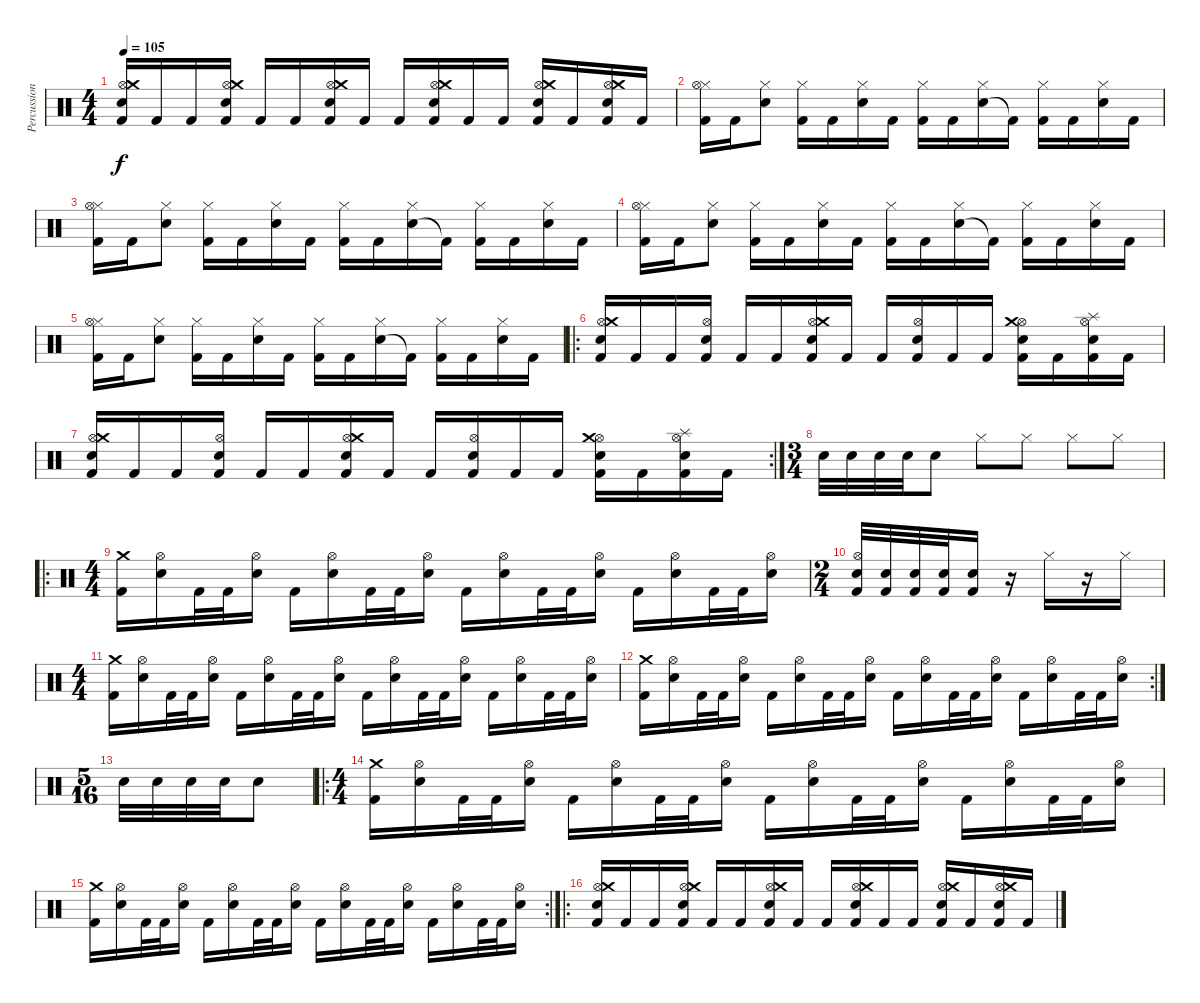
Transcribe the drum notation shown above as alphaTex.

\track ("Percussion" "Percussion") {instrument percussion}
\staff {score}
\articulation defaults
\ts (4 4)
\tempo 105
\clef neutral
\ks c
("Electric Snare (hit)" "Hi-Hat (open)" "Crash medium (hit)" "Kick (hit) 2").16{dy f} "Kick (hit) 2".16 "Kick (hit) 2".16 ("Electric Snare (hit)" "Hi-Hat (open)" "Crash medium (hit)" "Kick (hit) 2").16 "Kick (hit) 2".16 "Kick (hit) 2".16 ("Electric Snare (hit)" "Hi-Hat (open)" "Crash medium (hit)" "Kick (hit) 2").16 "Kick (hit) 2".16 "Kick (hit) 2".16 ("Electric Snare (hit)" "Hi-Hat (open)" "Crash medium (hit)" "Kick (hit) 2").16 "Kick (hit) 2".16 "Kick (hit) 2".16 ("Electric Snare (hit)" "Hi-Hat (open)" "Crash medium (hit)" "Kick (hit) 2").16 "Kick (hit) 2".16 ("Electric Snare (hit)" "Hi-Hat (open)" "Crash medium (hit)" "Kick (hit) 2").16 "Kick (hit) 2".16 |
("Kick (hit) 2" "Hi-Hat (closed)" "Hi-Hat (open)").16 "Kick (hit) 2".16 ("Electric Snare (hit)" "Hi-Hat (closed)").8 ("Kick (hit) 2" "Hi-Hat (closed)").16 "Kick (hit) 2".16 ("Electric Snare (hit)" "Hi-Hat (closed)").16 "Kick (hit) 2".16 ("Kick (hit) 2" "Hi-Hat (closed)").16 "Kick (hit) 2".16 ("Electric Snare (hit)" "Hi-Hat (closed)").16 "Kick (hit) 2"{t}.16 ("Kick (hit) 2" "Hi-Hat (closed)").16 "Kick (hit) 2".16 ("Electric Snare (hit)" "Hi-Hat (closed)").16 "Kick (hit) 2".16 |
("Kick (hit) 2" "Hi-Hat (closed)" "Hi-Hat (open)").16 "Kick (hit) 2".16 ("Electric Snare (hit)" "Hi-Hat (closed)").8 ("Kick (hit) 2" "Hi-Hat (closed)").16 "Kick (hit) 2".16 ("Electric Snare (hit)" "Hi-Hat (closed)").16 "Kick (hit) 2".16 ("Kick (hit) 2" "Hi-Hat (closed)").16 "Kick (hit) 2".16 ("Electric Snare (hit)" "Hi-Hat (closed)").16 "Kick (hit) 2"{t}.16 ("Kick (hit) 2" "Hi-Hat (closed)").16 "Kick (hit) 2".16 ("Electric Snare (hit)" "Hi-Hat (closed)").16 "Kick (hit) 2".16 |
("Kick (hit) 2" "Hi-Hat (closed)" "Hi-Hat (open)").16 "Kick (hit) 2".16 ("Electric Snare (hit)" "Hi-Hat (closed)").8 ("Kick (hit) 2" "Hi-Hat (closed)").16 "Kick (hit) 2".16 ("Electric Snare (hit)" "Hi-Hat (closed)").16 "Kick (hit) 2".16 ("Kick (hit) 2" "Hi-Hat (closed)").16 "Kick (hit) 2".16 ("Electric Snare (hit)" "Hi-Hat (closed)").16 "Kick (hit) 2"{t}.16 ("Kick (hit) 2" "Hi-Hat (closed)").16 "Kick (hit) 2".16 ("Electric Snare (hit)" "Hi-Hat (closed)").16 "Kick (hit) 2".16 |
("Kick (hit) 2" "Hi-Hat (closed)" "Hi-Hat (open)").16 "Kick (hit) 2".16 ("Electric Snare (hit)" "Hi-Hat (closed)").8 ("Kick (hit) 2" "Hi-Hat (closed)").16 "Kick (hit) 2".16 ("Electric Snare (hit)" "Hi-Hat (closed)").16 "Kick (hit) 2".16 ("Kick (hit) 2" "Hi-Hat (closed)").16 "Kick (hit) 2".16 ("Electric Snare (hit)" "Hi-Hat (closed)").16 "Kick (hit) 2"{t}.16 ("Kick (hit) 2" "Hi-Hat (closed)").16 "Kick (hit) 2".16 ("Electric Snare (hit)" "Hi-Hat (closed)").16 "Kick (hit) 2".16 |
\ro
("Electric Snare (hit)" "Hi-Hat (open)" "Crash medium (hit)" "Kick (hit) 2").16 "Kick (hit) 2".16 "Kick (hit) 2".16 ("Electric Snare (hit)" "Hi-Hat (open)" "Kick (hit) 2").16 "Kick (hit) 2".16 "Kick (hit) 2".16 ("Electric Snare (hit)" "Hi-Hat (open)" "Crash medium (hit)" "Kick (hit) 2").16 "Kick (hit) 2".16 "Kick (hit) 2".16 ("Electric Snare (hit)" "Hi-Hat (open)" "Kick (hit) 2").16 "Kick (hit) 2".16 "Kick (hit) 2".16 ("Electric Snare (hit)" "Hi-Hat (open)" "Crash medium (hit)" "Kick (hit) 2").16 "Kick (hit) 2".16 ("Electric Snare (hit)" "Hi-Hat (open)" "Splash (hit)" "Kick (hit) 2").16 "Kick (hit) 2".16 |
\rc 2
("Electric Snare (hit)" "Hi-Hat (open)" "Crash medium (hit)" "Kick (hit) 2").16 "Kick (hit) 2".16 "Kick (hit) 2".16 ("Electric Snare (hit)" "Hi-Hat (open)" "Kick (hit) 2").16 "Kick (hit) 2".16 "Kick (hit) 2".16 ("Electric Snare (hit)" "Hi-Hat (open)" "Crash medium (hit)" "Kick (hit) 2").16 "Kick (hit) 2".16 "Kick (hit) 2".16 ("Electric Snare (hit)" "Hi-Hat (open)" "Kick (hit) 2").16 "Kick (hit) 2".16 "Kick (hit) 2".16 ("Electric Snare (hit)" "Hi-Hat (open)" "Crash medium (hit)" "Kick (hit) 2").16 "Kick (hit) 2".16 ("Electric Snare (hit)" "Hi-Hat (open)" "Splash (hit)" "Kick (hit) 2").16 "Kick (hit) 2".16 |
\ts (3 4)
"Electric Snare (hit)".32 "Electric Snare (hit)".32 "Electric Snare (hit)".32 "Electric Snare (hit)".32 "Electric Snare (hit)".8 "Hi-Hat (closed)".8 "Hi-Hat (closed)".8 "Hi-Hat (closed)".8 "Hi-Hat (closed)".8 |
\ro
\ts (4 4)
("Kick (hit) 2" "Crash medium (hit)").16 ("Electric Snare (hit)" "Hi-Hat (open)").16 "Kick (hit) 2".32 "Kick (hit) 2".32 ("Electric Snare (hit)" "Hi-Hat (open)").16 "Kick (hit) 2".16 ("Electric Snare (hit)" "Hi-Hat (open)").16 "Kick (hit) 2".32 "Kick (hit) 2".32 ("Electric Snare (hit)" "Hi-Hat (open)").16 "Kick (hit) 2".16 ("Electric Snare (hit)" "Hi-Hat (open)").16 "Kick (hit) 2".32 "Kick (hit) 2".32 ("Electric Snare (hit)" "Hi-Hat (open)").16 "Kick (hit) 2".16 ("Electric Snare (hit)" "Hi-Hat (open)").16 "Kick (hit) 2".32 "Kick (hit) 2".32 ("Electric Snare (hit)" "Hi-Hat (open)").16 |
\ts (2 4)
("Kick (hit) 2" "Electric Snare (hit)" "Hi-Hat (open)").32 ("Kick (hit) 2" "Electric Snare (hit)").32 ("Kick (hit) 2" "Electric Snare (hit)").32 ("Kick (hit) 2" "Electric Snare (hit)").32 ("Kick (hit) 2" "Electric Snare (hit)").16 r.16 "Hi-Hat (closed)".16 r.16 "Hi-Hat (closed)".16 |
\ts (4 4)
("Kick (hit) 2" "Crash medium (hit)").16 ("Electric Snare (hit)" "Hi-Hat (open)").16 "Kick (hit) 2".32 "Kick (hit) 2".32 ("Electric Snare (hit)" "Hi-Hat (open)").16 "Kick (hit) 2".16 ("Electric Snare (hit)" "Hi-Hat (open)").16 "Kick (hit) 2".32 "Kick (hit) 2".32 ("Electric Snare (hit)" "Hi-Hat (open)").16 "Kick (hit) 2".16 ("Electric Snare (hit)" "Hi-Hat (open)").16 "Kick (hit) 2".32 "Kick (hit) 2".32 ("Electric Snare (hit)" "Hi-Hat (open)").16 "Kick (hit) 2".16 ("Electric Snare (hit)" "Hi-Hat (open)").16 "Kick (hit) 2".32 "Kick (hit) 2".32 ("Electric Snare (hit)" "Hi-Hat (open)").16 |
\rc 2
("Kick (hit) 2" "Crash medium (hit)").16 ("Electric Snare (hit)" "Hi-Hat (open)").16 "Kick (hit) 2".32 "Kick (hit) 2".32 ("Electric Snare (hit)" "Hi-Hat (open)").16 "Kick (hit) 2".16 ("Electric Snare (hit)" "Hi-Hat (open)").16 "Kick (hit) 2".32 "Kick (hit) 2".32 ("Electric Snare (hit)" "Hi-Hat (open)").16 "Kick (hit) 2".16 ("Electric Snare (hit)" "Hi-Hat (open)").16 "Kick (hit) 2".32 "Kick (hit) 2".32 ("Electric Snare (hit)" "Hi-Hat (open)").16 "Kick (hit) 2".16 ("Electric Snare (hit)" "Hi-Hat (open)").16 "Kick (hit) 2".32 "Kick (hit) 2".32 ("Electric Snare (hit)" "Hi-Hat (open)").16 |
\ts (5 16)
"Electric Snare (hit)".32 "Electric Snare (hit)".32 "Electric Snare (hit)".32 "Electric Snare (hit)".32 "Electric Snare (hit)".8 |
\ro
\ts (4 4)
("Kick (hit) 2" "Crash medium (hit)").16 ("Electric Snare (hit)" "Hi-Hat (open)").16 "Kick (hit) 2".32 "Kick (hit) 2".32 ("Electric Snare (hit)" "Hi-Hat (open)").16 "Kick (hit) 2".16 ("Electric Snare (hit)" "Hi-Hat (open)").16 "Kick (hit) 2".32 "Kick (hit) 2".32 ("Electric Snare (hit)" "Hi-Hat (open)").16 "Kick (hit) 2".16 ("Electric Snare (hit)" "Hi-Hat (open)").16 "Kick (hit) 2".32 "Kick (hit) 2".32 ("Electric Snare (hit)" "Hi-Hat (open)").16 "Kick (hit) 2".16 ("Electric Snare (hit)" "Hi-Hat (open)").16 "Kick (hit) 2".32 "Kick (hit) 2".32 ("Electric Snare (hit)" "Hi-Hat (open)").16 |
\rc 2
("Kick (hit) 2" "Crash medium (hit)").16 ("Electric Snare (hit)" "Hi-Hat (open)").16 "Kick (hit) 2".32 "Kick (hit) 2".32 ("Electric Snare (hit)" "Hi-Hat (open)").16 "Kick (hit) 2".16 ("Electric Snare (hit)" "Hi-Hat (open)").16 "Kick (hit) 2".32 "Kick (hit) 2".32 ("Electric Snare (hit)" "Hi-Hat (open)").16 "Kick (hit) 2".16 ("Electric Snare (hit)" "Hi-Hat (open)").16 "Kick (hit) 2".32 "Kick (hit) 2".32 ("Electric Snare (hit)" "Hi-Hat (open)").16 "Kick (hit) 2".16 ("Electric Snare (hit)" "Hi-Hat (open)").16 "Kick (hit) 2".32 "Kick (hit) 2".32 ("Electric Snare (hit)" "Hi-Hat (open)").16 |
\ro
("Electric Snare (hit)" "Hi-Hat (open)" "Crash medium (hit)" "Kick (hit) 2").16 "Kick (hit) 2".16 "Kick (hit) 2".16 ("Electric Snare (hit)" "Hi-Hat (open)" "Crash medium (hit)" "Kick (hit) 2").16 "Kick (hit) 2".16 "Kick (hit) 2".16 ("Electric Snare (hit)" "Hi-Hat (open)" "Crash medium (hit)" "Kick (hit) 2").16 "Kick (hit) 2".16 "Kick (hit) 2".16 ("Electric Snare (hit)" "Hi-Hat (open)" "Crash medium (hit)" "Kick (hit) 2").16 "Kick (hit) 2".16 "Kick (hit) 2".16 ("Electric Snare (hit)" "Hi-Hat (open)" "Crash medium (hit)" "Kick (hit) 2").16 "Kick (hit) 2".16 ("Electric Snare (hit)" "Hi-Hat (open)" "Crash medium (hit)" "Kick (hit) 2").16 "Kick (hit) 2".16
